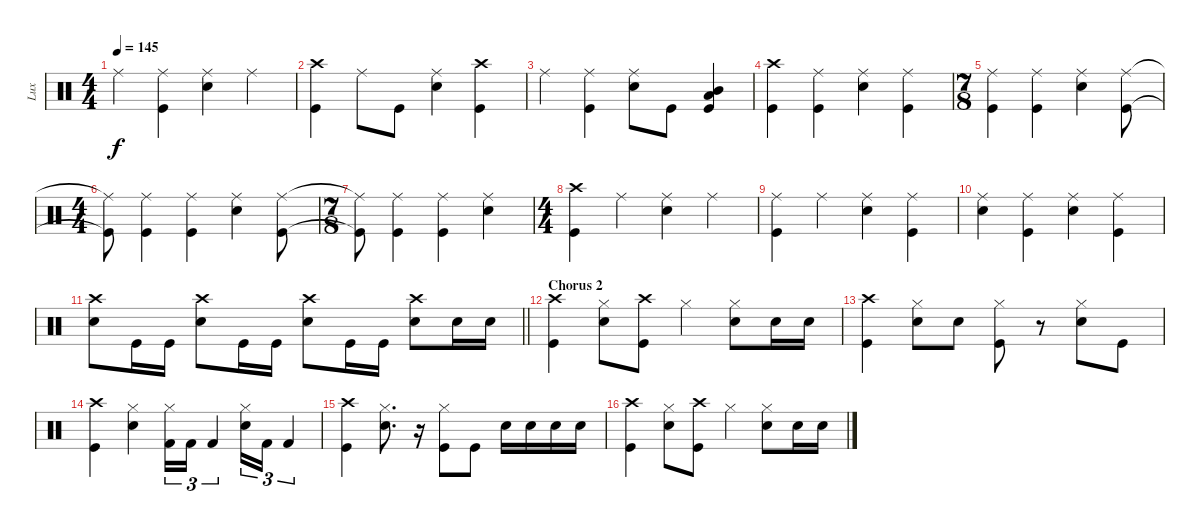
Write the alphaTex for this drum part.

\track ("Lux" "Lux") {instrument percussion}
\staff {score}
\articulation defaults
\ts (4 4)
\tempo 145
\clef neutral
\ks c "Ride (middle)".4{dy f}
("Ride (middle)" "Kick (hit)").4 ("Ride (middle)" "Snare (hit) 2").4 "Ride (middle)".4 |
("Crash high (hit)" "Kick (hit)").4 "Ride (middle)".8 "Kick (hit)".8 ("Ride (middle)" "Snare (hit) 2").4 ("Crash high (hit)" "Kick (hit)").4 |
"Ride (middle)".4 ("Ride (middle)" "Kick (hit)").4 ("Ride (middle)" "Snare (hit) 2").8 "Kick (hit)".8 ("Low Tom (hit)" "Mid Tom (hit)" "Kick (hit)").4 |
("Crash high (hit)" "Kick (hit)").4 ("Ride (middle)" "Kick (hit)").4 ("Ride (middle)" "Snare (hit) 2").4 ("Ride (middle)" "Kick (hit)").4 |
\ts (7 8)
("Ride (middle)" "Kick (hit)").4 ("Ride (middle)" "Kick (hit)").4 ("Ride (middle)" "Snare (hit) 2").4 ("Ride (middle)" "Kick (hit)").8 |
\ts (4 4)
("Ride (middle)"{t} "Kick (hit)"{t}).8 ("Ride (middle)" "Kick (hit)").4 ("Ride (middle)" "Kick (hit)").4 ("Ride (middle)" "Snare (hit) 2").4 ("Ride (middle)" "Kick (hit)").8 |
\ts (7 8)
("Ride (middle)"{t} "Kick (hit)"{t}).8 ("Ride (middle)" "Kick (hit)").4 ("Ride (middle)" "Kick (hit)").4 ("Ride (middle)" "Snare (hit) 2").4 |
\ts (4 4)
("Crash high (hit)" "Kick (hit)").4 "Ride (middle)".4 ("Ride (middle)" "Snare (hit) 2").4 "Ride (middle)".4 |
("Ride (middle)" "Kick (hit)").4 "Ride (middle)".4 ("Ride (middle)" "Snare (hit) 2").4 ("Ride (middle)" "Kick (hit)").4 |
("Ride (middle)" "Snare (hit) 2").4 ("Ride (middle)" "Kick (hit)").4 ("Ride (middle)" "Snare (hit) 2").4 ("Ride (middle)" "Kick (hit)").4 |
\barLineRight lightlight
("Crash high (hit)" "Snare (hit) 2").8 "Kick (hit)".16 "Kick (hit)".16 ("Crash high (hit)" "Snare (hit) 2").8 "Kick (hit)".16 "Kick (hit)".16 ("Crash high (hit)" "Snare (hit) 2").8 "Kick (hit)".16 "Kick (hit)".16 ("Crash high (hit)" "Snare (hit) 2").8 "Snare (hit) 2".16 "Snare (hit) 2".16 |
\section ("" "Chorus 2")
("Crash high (hit)" "Kick (hit)").4 ("Hi-Hat (closed)" "Snare (hit) 2").8 ("Crash high (hit)" "Kick (hit)").8 "Hi-Hat (closed)".4 ("Hi-Hat (closed)" "Snare (hit) 2").8 "Snare (hit) 2".16 "Snare (hit) 2".16 |
("Crash high (hit)" "Kick (hit)").4 ("Hi-Hat (closed)" "Snare (hit) 2").8 "Snare (hit) 2".8 ("Hi-Hat (closed)" "Kick (hit)").8 r.8 ("Hi-Hat (closed)" "Snare (hit) 2").8 "Kick (hit)".8 |
("Crash high (hit)" "Kick (hit)").4 ("Hi-Hat (closed)" "Snare (hit) 2").4 ("Hi-Hat (closed)" "Kick (hit) 2").16{tu (3 2)} "Kick (hit) 2".16{tu (3 2)} "Kick (hit) 2".4{tu (3 2)} ("Hi-Hat (closed)" "Snare (hit) 2").16{tu (3 2)} "Kick (hit) 2".16{tu (3 2)} "Kick (hit) 2".4{tu (3 2)} |
("Crash high (hit)" "Kick (hit)").4 ("Hi-Hat (closed)" "Snare (hit) 2").8{d} r.16 ("Hi-Hat (closed)" "Kick (hit)").8 "Kick (hit)".8 "Snare (hit) 2".16 "Snare (hit) 2".16 "Snare (hit) 2".16 "Snare (hit) 2".16 |
("Crash high (hit)" "Kick (hit)").4 ("Hi-Hat (closed)" "Snare (hit) 2").8 ("Crash high (hit)" "Kick (hit)").8 "Hi-Hat (closed)".4 ("Hi-Hat (closed)" "Snare (hit) 2").8 "Snare (hit) 2".16 "Snare (hit) 2".16
